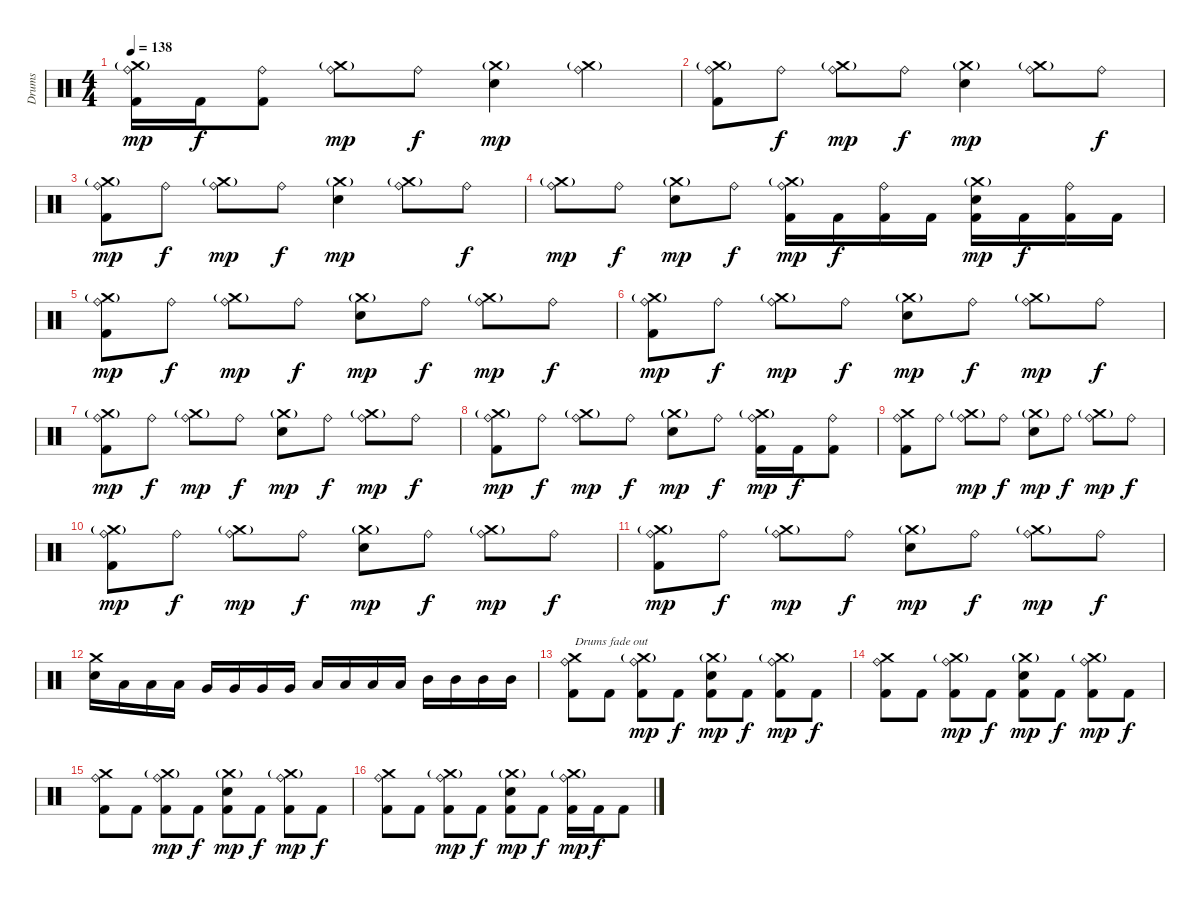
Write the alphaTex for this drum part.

\track ("Drums" "Drums") {instrument percussion}
\staff {score}
\articulation defaults
\ts (4 4)
\tempo 138
\clef neutral
\ks c
("Crash medium (hit)"{g} "Ride (bell)" "Kick (hit) 2").16{dy mp} "Kick (hit) 2".16{dy f} ("Ride (bell)" "Kick (hit) 2").8 ("Crash medium (hit)"{g} "Ride (bell)").8{dy mp} "Ride (bell)".8{dy f} ("Crash medium (hit)"{g} "Electric Snare (hit)").4{dy mp} ("Crash medium (hit)"{g} "Ride (bell)").4 |
("Crash medium (hit)"{g} "Ride (bell)" "Kick (hit) 2").8 "Ride (bell)".8{dy f} ("Crash medium (hit)"{g} "Ride (bell)").8{dy mp} "Ride (bell)".8{dy f} ("Crash medium (hit)"{g} "Electric Snare (hit)").4{dy mp} ("Crash medium (hit)"{g} "Ride (bell)").8 "Ride (bell)".8{dy f} |
("Crash medium (hit)"{g} "Ride (bell)" "Kick (hit) 2").8{dy mp} "Ride (bell)".8{dy f} ("Crash medium (hit)"{g} "Ride (bell)").8{dy mp} "Ride (bell)".8{dy f} ("Crash medium (hit)"{g} "Electric Snare (hit)").4{dy mp} ("Crash medium (hit)"{g} "Ride (bell)").8 "Ride (bell)".8{dy f} |
("Crash medium (hit)"{g} "Ride (bell)").8{dy mp} "Ride (bell)".8{dy f} ("Crash medium (hit)"{g} "Electric Snare (hit)").8{dy mp} "Ride (bell)".8{dy f} ("Crash medium (hit)"{g} "Ride (bell)" "Kick (hit) 2").16{dy mp} "Kick (hit) 2".16{dy f} ("Ride (bell)" "Kick (hit) 2").16 "Kick (hit) 2".16 ("Crash medium (hit)"{g} "Electric Snare (hit)" "Kick (hit) 2").16{dy mp} "Kick (hit) 2".16{dy f} ("Ride (bell)" "Kick (hit) 2").16 "Kick (hit) 2".16 |
("Crash medium (hit)"{g} "Ride (bell)" "Kick (hit) 2").8{dy mp} "Ride (bell)".8{dy f} ("Crash medium (hit)"{g} "Ride (bell)").8{dy mp} "Ride (bell)".8{dy f} ("Crash medium (hit)"{g} "Electric Snare (hit)").8{dy mp} "Ride (bell)".8{dy f} ("Crash medium (hit)"{g} "Ride (bell)").8{dy mp} "Ride (bell)".8{dy f} |
("Crash medium (hit)"{g} "Ride (bell)" "Kick (hit) 2").8{dy mp} "Ride (bell)".8{dy f} ("Crash medium (hit)"{g} "Ride (bell)").8{dy mp} "Ride (bell)".8{dy f} ("Crash medium (hit)"{g} "Electric Snare (hit)").8{dy mp} "Ride (bell)".8{dy f} ("Crash medium (hit)"{g} "Ride (bell)").8{dy mp} "Ride (bell)".8{dy f} |
("Crash medium (hit)"{g} "Ride (bell)" "Kick (hit) 2").8{dy mp} "Ride (bell)".8{dy f} ("Crash medium (hit)"{g} "Ride (bell)").8{dy mp} "Ride (bell)".8{dy f} ("Crash medium (hit)"{g} "Electric Snare (hit)").8{dy mp} "Ride (bell)".8{dy f} ("Crash medium (hit)"{g} "Ride (bell)").8{dy mp} "Ride (bell)".8{dy f} |
("Crash medium (hit)"{g} "Ride (bell)" "Kick (hit) 2").8{dy mp} "Ride (bell)".8{dy f} ("Crash medium (hit)"{g} "Ride (bell)").8{dy mp} "Ride (bell)".8{dy f} ("Crash medium (hit)"{g} "Electric Snare (hit)").8{dy mp} "Ride (bell)".8{dy f} ("Crash medium (hit)"{g} "Ride (bell)" "Kick (hit) 2").16{dy mp} "Kick (hit) 2".16{dy f} ("Ride (bell)" "Kick (hit) 2").8 |
("Crash medium (hit)" "Ride (bell)" "Kick (hit) 2").8 "Ride (bell)".8 ("Crash medium (hit)"{g} "Ride (bell)").8{dy mp} "Ride (bell)".8{dy f} ("Crash medium (hit)"{g} "Electric Snare (hit)").8{dy mp} "Ride (bell)".8{dy f} ("Crash medium (hit)"{g} "Ride (bell)").8{dy mp} "Ride (bell)".8{dy f} |
("Crash medium (hit)"{g} "Ride (bell)" "Kick (hit) 2").8{dy mp} "Ride (bell)".8{dy f} ("Crash medium (hit)"{g} "Ride (bell)").8{dy mp} "Ride (bell)".8{dy f} ("Crash medium (hit)"{g} "Electric Snare (hit)").8{dy mp} "Ride (bell)".8{dy f} ("Crash medium (hit)"{g} "Ride (bell)").8{dy mp} "Ride (bell)".8{dy f} |
("Crash medium (hit)"{g} "Ride (bell)" "Kick (hit) 2").8{dy mp} "Ride (bell)".8{dy f} ("Crash medium (hit)"{g} "Ride (bell)").8{dy mp} "Ride (bell)".8{dy f} ("Crash medium (hit)"{g} "Electric Snare (hit)").8{dy mp} "Ride (bell)".8{dy f} ("Crash medium (hit)"{g} "Ride (bell)").8{dy mp} "Ride (bell)".8{dy f} |
("Crash medium (hit)" "Electric Snare (hit)").16 "Low Floor Tom (hit)".16 "Low Floor Tom (hit)".16 "Low Floor Tom (hit)".16 "Very Low Tom (hit)".16 "Very Low Tom (hit)".16 "Very Low Tom (hit)".16 "Very Low Tom (hit)".16 "Low Tom (hit)".16 "Low Tom (hit)".16 "Low Tom (hit)".16 "Low Tom (hit)".16 "Mid Tom (hit)".16 "Mid Tom (hit)".16 "Mid Tom (hit)".16 "Mid Tom (hit)".16 |
("Crash medium (hit)" "Ride (bell)" "Kick (hit) 2").8{txt "Drums fade out" volume 15} "Kick (hit) 2".8 ("Crash medium (hit)"{g} "Ride (bell)" "Kick (hit) 2").8{dy mp} "Kick (hit) 2".8{dy f} ("Crash medium (hit)"{g} "Electric Snare (hit)" "Kick (hit) 2").8{dy mp} "Kick (hit) 2".8{dy f} ("Crash medium (hit)"{g} "Ride (bell)" "Kick (hit) 2").8{dy mp} "Kick (hit) 2".8{dy f} |
("Crash medium (hit)" "Ride (bell)" "Kick (hit) 2").8{volume 14} "Kick (hit) 2".8 ("Crash medium (hit)"{g} "Ride (bell)" "Kick (hit) 2").8{dy mp} "Kick (hit) 2".8{dy f} ("Crash medium (hit)"{g} "Electric Snare (hit)" "Kick (hit) 2").8{dy mp} "Kick (hit) 2".8{dy f} ("Crash medium (hit)"{g} "Ride (bell)" "Kick (hit) 2").8{dy mp} "Kick (hit) 2".8{dy f} |
("Crash medium (hit)" "Ride (bell)" "Kick (hit) 2").8{volume 13} "Kick (hit) 2".8 ("Crash medium (hit)"{g} "Ride (bell)" "Kick (hit) 2").8{dy mp} "Kick (hit) 2".8{dy f} ("Crash medium (hit)"{g} "Electric Snare (hit)" "Kick (hit) 2").8{dy mp} "Kick (hit) 2".8{dy f} ("Crash medium (hit)"{g} "Ride (bell)" "Kick (hit) 2").8{dy mp} "Kick (hit) 2".8{dy f} |
("Crash medium (hit)" "Ride (bell)" "Kick (hit) 2").8{volume 12} "Kick (hit) 2".8 ("Crash medium (hit)"{g} "Ride (bell)" "Kick (hit) 2").8{dy mp} "Kick (hit) 2".8{dy f} ("Crash medium (hit)"{g} "Electric Snare (hit)" "Kick (hit) 2").8{dy mp} "Kick (hit) 2".8{dy f} ("Crash medium (hit)"{g} "Ride (bell)" "Kick (hit) 2").16{dy mp} "Kick (hit) 2".16{dy f} "Kick (hit) 2".8
